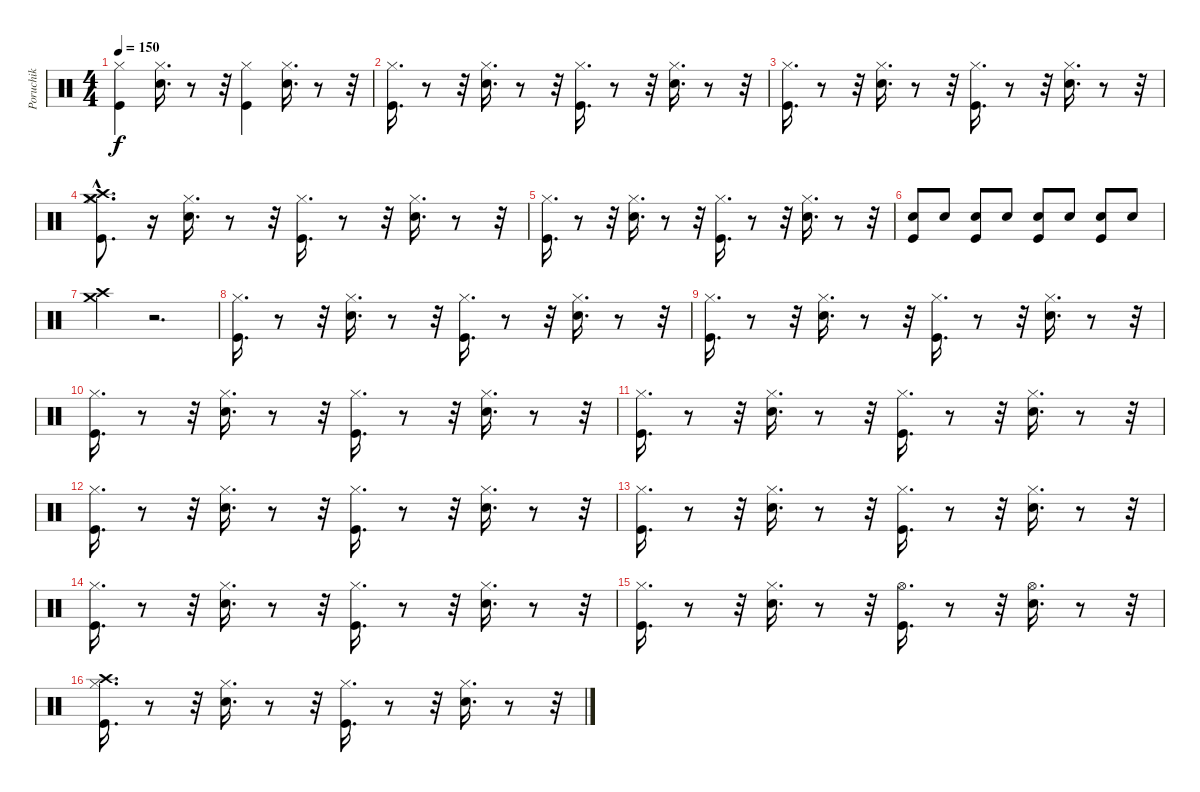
\track ("Poruchik" "Poruchik") {instrument percussion}
\staff {score}
\articulation defaults
\ts (4 4)
\tempo 150
\clef neutral
\ks c
("Kick (hit)" "Hi-Hat (closed)").4{dy f} ("Electric Snare (hit)" "Hi-Hat (closed)").16{d} r.8 r.32 ("Kick (hit)" "Hi-Hat (closed)").4 ("Electric Snare (hit)" "Hi-Hat (closed)").16{d} r.8 r.32 |
("Hi-Hat (closed)" "Kick (hit)").16{d} r.8 r.32 ("Electric Snare (hit)" "Hi-Hat (closed)").16{d} r.8 r.32 ("Hi-Hat (closed)" "Kick (hit)").16{d} r.8 r.32 ("Electric Snare (hit)" "Hi-Hat (closed)").16{d} r.8 r.32 |
("Hi-Hat (closed)" "Kick (hit)").16{d} r.8 r.32 ("Electric Snare (hit)" "Hi-Hat (closed)").16{d} r.8 r.32 ("Kick (hit)" "Hi-Hat (closed)").16{d} r.8 r.32 ("Hi-Hat (closed)" "Electric Snare (hit)").16{d} r.8 r.32 |
("Crash high (hit)"{hac} "Hi-Hat (closed)" "Crash medium (hit)"{hac} "Kick (hit)").8{d} r.16 ("Hi-Hat (closed)" "Electric Snare (hit)").16{d} r.8 r.32 ("Kick (hit)" "Hi-Hat (closed)").16{d} r.8 r.32 ("Hi-Hat (closed)" "Electric Snare (hit)").16{d} r.8 r.32 |
("Kick (hit)" "Hi-Hat (closed)").16{d} r.8 r.32 ("Hi-Hat (closed)" "Electric Snare (hit)").16{d} r.8 r.32 ("Hi-Hat (closed)" "Kick (hit)").16{d} r.8 r.32 ("Hi-Hat (closed)" "Electric Snare (hit)").16{d} r.8 r.32 |
("Electric Snare (hit)" "Kick (hit)").8 "Electric Snare (hit)".8 ("Kick (hit)" "Electric Snare (hit)").8 "Electric Snare (hit)".8 ("Kick (hit)" "Electric Snare (hit)").8 "Electric Snare (hit)".8 ("Electric Snare (hit)" "Kick (hit)").8 "Electric Snare (hit)".8 |
("Crash medium (hit)" "Crash high (hit)").4 r.2{d} |
("Hi-Hat (closed)" "Kick (hit)").16{d} r.8 r.32 ("Hi-Hat (closed)" "Electric Snare (hit)").16{d} r.8 r.32 ("Hi-Hat (closed)" "Kick (hit)").16{d} r.8 r.32 ("Hi-Hat (closed)" "Electric Snare (hit)").16{d} r.8 r.32 |
("Hi-Hat (closed)" "Kick (hit)").16{d} r.8 r.32 ("Electric Snare (hit)" "Hi-Hat (closed)").16{d} r.8 r.32 ("Hi-Hat (closed)" "Kick (hit)").16{d} r.8 r.32 ("Hi-Hat (closed)" "Electric Snare (hit)").16{d} r.8 r.32 |
("Hi-Hat (closed)" "Kick (hit)").16{d} r.8 r.32 ("Hi-Hat (closed)" "Electric Snare (hit)").16{d} r.8 r.32 ("Kick (hit)" "Hi-Hat (closed)").16{d} r.8 r.32 ("Hi-Hat (closed)" "Electric Snare (hit)").16{d} r.8 r.32 |
("Hi-Hat (closed)" "Kick (hit)").16{d} r.8 r.32 ("Hi-Hat (closed)" "Electric Snare (hit)").16{d} r.8 r.32 ("Kick (hit)" "Hi-Hat (closed)").16{d} r.8 r.32 ("Electric Snare (hit)" "Hi-Hat (closed)").16{d} r.8 r.32 |
("Hi-Hat (closed)" "Kick (hit)").16{d} r.8 r.32 ("Hi-Hat (closed)" "Electric Snare (hit)").16{d} r.8 r.32 ("Hi-Hat (closed)" "Kick (hit)").16{d} r.8 r.32 ("Electric Snare (hit)" "Hi-Hat (closed)").16{d} r.8 r.32 |
("Hi-Hat (closed)" "Kick (hit)").16{d} r.8 r.32 ("Hi-Hat (closed)" "Electric Snare (hit)").16{d} r.8 r.32 ("Hi-Hat (closed)" "Kick (hit)").16{d} r.8 r.32 ("Hi-Hat (closed)" "Electric Snare (hit)").16{d} r.8 r.32 |
("Hi-Hat (closed)" "Kick (hit)").16{d} r.8 r.32 ("Electric Snare (hit)" "Hi-Hat (closed)").16{d} r.8 r.32 ("Kick (hit)" "Hi-Hat (closed)").16{d} r.8 r.32 ("Electric Snare (hit)" "Hi-Hat (closed)").16{d} r.8 r.32 |
("Hi-Hat (closed)" "Kick (hit)").16{d} r.8 r.32 ("Electric Snare (hit)" "Hi-Hat (closed)").16{d} r.8 r.32 ("Hi-Hat (open)" "Kick (hit)").16{d} r.8 r.32 ("Electric Snare (hit)" "Hi-Hat (open)").16{d} r.8 r.32 |
("Hi-Hat (closed)" "Kick (hit)" "Crash high (hit)").16{d} r.8 r.32 ("Hi-Hat (closed)" "Electric Snare (hit)").16{d} r.8 r.32 ("Hi-Hat (closed)" "Kick (hit)").16{d} r.8 r.32 ("Hi-Hat (closed)" "Electric Snare (hit)").16{d} r.8 r.32
